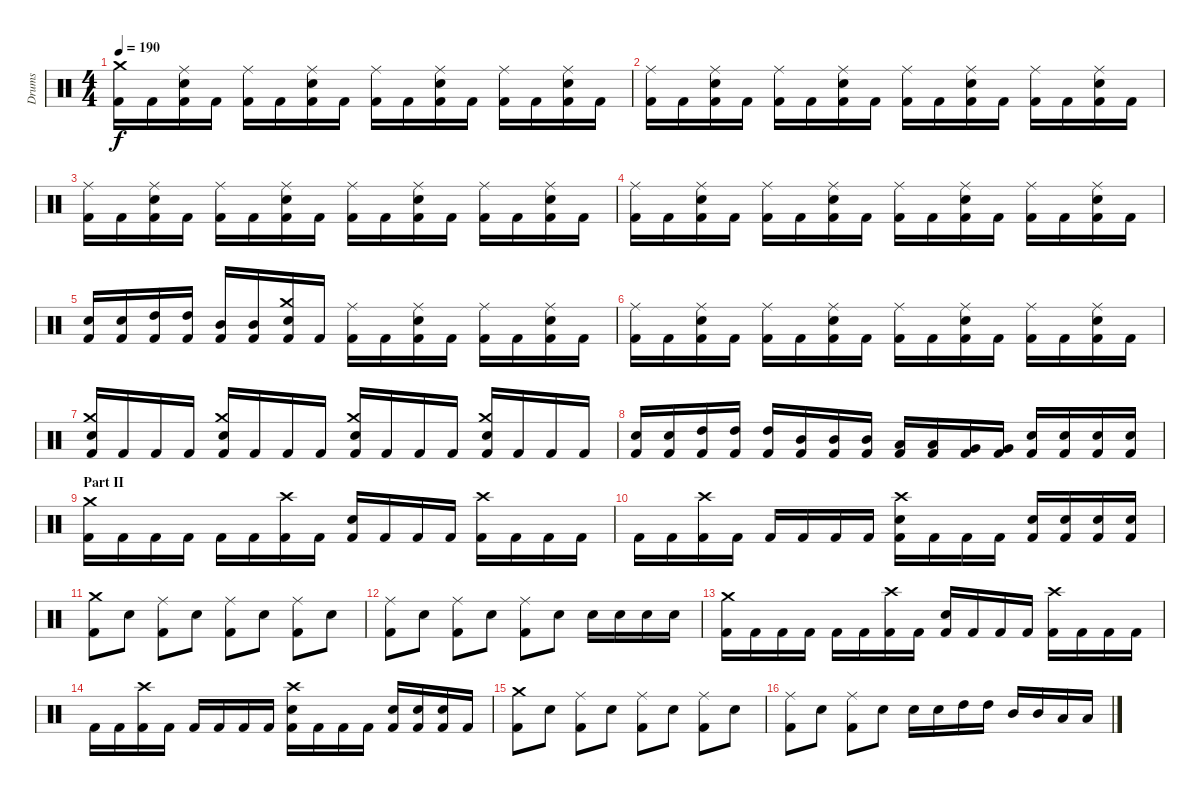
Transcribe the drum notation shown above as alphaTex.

\track ("Drums" "Drums") {instrument percussion}
\staff {score}
\articulation defaults
\ts (4 4)
\tempo 190
\clef neutral
\ks c
("Kick (hit) 2" "Crash medium (hit)").16{dy f} "Kick (hit) 2".16 ("Kick (hit) 2" "Electric Snare (hit)" "Ride (middle)").16 "Kick (hit) 2".16 ("Kick (hit) 2" "Ride (middle)").16 "Kick (hit) 2".16 ("Kick (hit) 2" "Electric Snare (hit)" "Ride (middle)").16 "Kick (hit) 2".16 ("Kick (hit) 2" "Ride (middle)").16 "Kick (hit) 2".16 ("Kick (hit) 2" "Electric Snare (hit)" "Ride (middle)").16 "Kick (hit) 2".16 ("Kick (hit) 2" "Ride (middle)").16 "Kick (hit) 2".16 ("Kick (hit) 2" "Electric Snare (hit)" "Ride (middle)").16 "Kick (hit) 2".16 |
("Kick (hit) 2" "Ride (middle)").16 "Kick (hit) 2".16 ("Kick (hit) 2" "Electric Snare (hit)" "Ride (middle)").16 "Kick (hit) 2".16 ("Kick (hit) 2" "Ride (middle)").16 "Kick (hit) 2".16 ("Kick (hit) 2" "Electric Snare (hit)" "Ride (middle)").16 "Kick (hit) 2".16 ("Kick (hit) 2" "Ride (middle)").16 "Kick (hit) 2".16 ("Kick (hit) 2" "Electric Snare (hit)" "Ride (middle)").16 "Kick (hit) 2".16 ("Kick (hit) 2" "Ride (middle)").16 "Kick (hit) 2".16 ("Kick (hit) 2" "Electric Snare (hit)" "Ride (middle)").16 "Kick (hit) 2".16 |
("Kick (hit) 2" "Ride (middle)").16 "Kick (hit) 2".16 ("Kick (hit) 2" "Electric Snare (hit)" "Ride (middle)").16 "Kick (hit) 2".16 ("Kick (hit) 2" "Ride (middle)").16 "Kick (hit) 2".16 ("Kick (hit) 2" "Electric Snare (hit)" "Ride (middle)").16 "Kick (hit) 2".16 ("Kick (hit) 2" "Ride (middle)").16 "Kick (hit) 2".16 ("Kick (hit) 2" "Electric Snare (hit)" "Ride (middle)").16 "Kick (hit) 2".16 ("Kick (hit) 2" "Ride (middle)").16 "Kick (hit) 2".16 ("Kick (hit) 2" "Electric Snare (hit)" "Ride (middle)").16 "Kick (hit) 2".16 |
("Kick (hit) 2" "Ride (middle)").16 "Kick (hit) 2".16 ("Kick (hit) 2" "Electric Snare (hit)" "Ride (middle)").16 "Kick (hit) 2".16 ("Kick (hit) 2" "Ride (middle)").16 "Kick (hit) 2".16 ("Kick (hit) 2" "Electric Snare (hit)" "Ride (middle)").16 "Kick (hit) 2".16 ("Kick (hit) 2" "Ride (middle)").16 "Kick (hit) 2".16 ("Kick (hit) 2" "Electric Snare (hit)" "Ride (middle)").16 "Kick (hit) 2".16 ("Kick (hit) 2" "Ride (middle)").16 "Kick (hit) 2".16 ("Kick (hit) 2" "Electric Snare (hit)" "Ride (middle)").16 "Kick (hit) 2".16 |
("Kick (hit) 2" "Electric Snare (hit)").16 ("Kick (hit) 2" "Electric Snare (hit)").16 ("Kick (hit) 2" "High Tom (hit)").16 ("Kick (hit) 2" "High Tom (hit)").16 ("Kick (hit) 2" "Mid Tom (hit)").16 ("Kick (hit) 2" "Mid Tom (hit)").16 ("Kick (hit) 2" "Electric Snare (hit)" "Crash medium (hit)").16 "Kick (hit) 2".16 ("Kick (hit) 2" "Ride (middle)").16 "Kick (hit) 2".16 ("Kick (hit) 2" "Electric Snare (hit)" "Ride (middle)").16 "Kick (hit) 2".16 ("Kick (hit) 2" "Ride (middle)").16 "Kick (hit) 2".16 ("Kick (hit) 2" "Electric Snare (hit)" "Ride (middle)").16 "Kick (hit) 2".16 |
("Kick (hit) 2" "Ride (middle)").16 "Kick (hit) 2".16 ("Kick (hit) 2" "Electric Snare (hit)" "Ride (middle)").16 "Kick (hit) 2".16 ("Kick (hit) 2" "Ride (middle)").16 "Kick (hit) 2".16 ("Kick (hit) 2" "Electric Snare (hit)" "Ride (middle)").16 "Kick (hit) 2".16 ("Kick (hit) 2" "Ride (middle)").16 "Kick (hit) 2".16 ("Kick (hit) 2" "Electric Snare (hit)" "Ride (middle)").16 "Kick (hit) 2".16 ("Kick (hit) 2" "Ride (middle)").16 "Kick (hit) 2".16 ("Kick (hit) 2" "Electric Snare (hit)" "Ride (middle)").16 "Kick (hit) 2".16 |
("Kick (hit) 2" "Electric Snare (hit)" "Crash medium (hit)").16 "Kick (hit) 2".16 "Kick (hit) 2".16 "Kick (hit) 2".16 ("Kick (hit) 2" "Electric Snare (hit)" "Crash medium (hit)").16 "Kick (hit) 2".16 "Kick (hit) 2".16 "Kick (hit) 2".16 ("Kick (hit) 2" "Electric Snare (hit)" "Crash medium (hit)").16 "Kick (hit) 2".16 "Kick (hit) 2".16 "Kick (hit) 2".16 ("Kick (hit) 2" "Electric Snare (hit)" "Crash medium (hit)").16 "Kick (hit) 2".16 "Kick (hit) 2".16 "Kick (hit) 2".16 |
("Kick (hit) 2" "Electric Snare (hit)").16 ("Kick (hit) 2" "Electric Snare (hit)").16 ("Kick (hit) 2" "High Tom (hit)").16 ("Kick (hit) 2" "High Tom (hit)").16 ("Kick (hit) 2" "High Tom (hit)").16 ("Kick (hit) 2" "Mid Tom (hit)").16 ("Kick (hit) 2" "Mid Tom (hit)").16 ("Kick (hit) 2" "Mid Tom (hit)").16 ("Kick (hit) 2" "Low Tom (hit)").16 ("Kick (hit) 2" "Low Tom (hit)").16 ("Kick (hit) 2" "Very Low Tom (hit)").16 ("Kick (hit) 2" "Very Low Tom (hit)").16 ("Kick (hit) 2" "Electric Snare (hit)").16 ("Kick (hit) 2" "Electric Snare (hit)").16 ("Kick (hit) 2" "Electric Snare (hit)").16 ("Kick (hit) 2" "Electric Snare (hit)").16 |
\section ("" "Part II")
("Kick (hit) 2" "Crash medium (hit)").16 "Kick (hit) 2".16 "Kick (hit) 2".16 "Kick (hit) 2".16 "Kick (hit) 2".16 "Kick (hit) 2".16 ("Kick (hit) 2" "Crash high (hit)").16 "Kick (hit) 2".16 ("Kick (hit) 2" "Electric Snare (hit)").16 "Kick (hit) 2".16 "Kick (hit) 2".16 "Kick (hit) 2".16 ("Kick (hit) 2" "Crash high (hit)").16 "Kick (hit) 2".16 "Kick (hit) 2".16 "Kick (hit) 2".16 |
"Kick (hit) 2".16 "Kick (hit) 2".16 ("Kick (hit) 2" "Crash high (hit)").16 "Kick (hit) 2".16 "Kick (hit) 2".16 "Kick (hit) 2".16 "Kick (hit) 2".16 "Kick (hit) 2".16 ("Kick (hit) 2" "Electric Snare (hit)" "Crash high (hit)").16 "Kick (hit) 2".16 "Kick (hit) 2".16 "Kick (hit) 2".16 ("Kick (hit) 2" "Electric Snare (hit)").16 ("Kick (hit) 2" "Electric Snare (hit)").16 ("Kick (hit) 2" "Electric Snare (hit)").16 ("Kick (hit) 2" "Electric Snare (hit)").16 |
("Kick (hit) 2" "Crash medium (hit)").8 "Electric Snare (hit)".8 ("Kick (hit) 2" "Ride (middle)").8 "Electric Snare (hit)".8 ("Kick (hit) 2" "Ride (middle)").8 "Electric Snare (hit)".8 ("Kick (hit) 2" "Ride (middle)").8 "Electric Snare (hit)".8 |
("Kick (hit) 2" "Ride (middle)").8 "Electric Snare (hit)".8 ("Kick (hit) 2" "Ride (middle)").8 "Electric Snare (hit)".8 ("Kick (hit) 2" "Ride (middle)").8 "Electric Snare (hit)".8 "Electric Snare (hit)".16 "Electric Snare (hit)".16 "Electric Snare (hit)".16 "Electric Snare (hit)".16 |
("Kick (hit) 2" "Crash medium (hit)").16 "Kick (hit) 2".16 "Kick (hit) 2".16 "Kick (hit) 2".16 "Kick (hit) 2".16 "Kick (hit) 2".16 ("Kick (hit) 2" "Crash high (hit)").16 "Kick (hit) 2".16 ("Kick (hit) 2" "Electric Snare (hit)").16 "Kick (hit) 2".16 "Kick (hit) 2".16 "Kick (hit) 2".16 ("Kick (hit) 2" "Crash high (hit)").16 "Kick (hit) 2".16 "Kick (hit) 2".16 "Kick (hit) 2".16 |
"Kick (hit) 2".16 "Kick (hit) 2".16 ("Kick (hit) 2" "Crash high (hit)").16 "Kick (hit) 2".16 "Kick (hit) 2".16 "Kick (hit) 2".16 "Kick (hit) 2".16 "Kick (hit) 2".16 ("Kick (hit) 2" "Electric Snare (hit)" "Crash high (hit)").16 "Kick (hit) 2".16 "Kick (hit) 2".16 "Kick (hit) 2".16 ("Kick (hit) 2" "Electric Snare (hit)").16 ("Kick (hit) 2" "Electric Snare (hit)").16 ("Kick (hit) 2" "Electric Snare (hit)").16 "Kick (hit) 2".16 |
("Kick (hit) 2" "Crash medium (hit)").8 "Electric Snare (hit)".8 ("Kick (hit) 2" "Ride (middle)").8 "Electric Snare (hit)".8 ("Kick (hit) 2" "Ride (middle)").8 "Electric Snare (hit)".8 ("Kick (hit) 2" "Ride (middle)").8 "Electric Snare (hit)".8 |
("Kick (hit) 2" "Ride (middle)").8 "Electric Snare (hit)".8 ("Kick (hit) 2" "Ride (middle)").8 "Electric Snare (hit)".8 "Electric Snare (hit)".16 "Electric Snare (hit)".16 "High Tom (hit)".16 "High Tom (hit)".16 "Mid Tom (hit)".16 "Mid Tom (hit)".16 "Low Tom (hit)".16 "Low Tom (hit)".16
